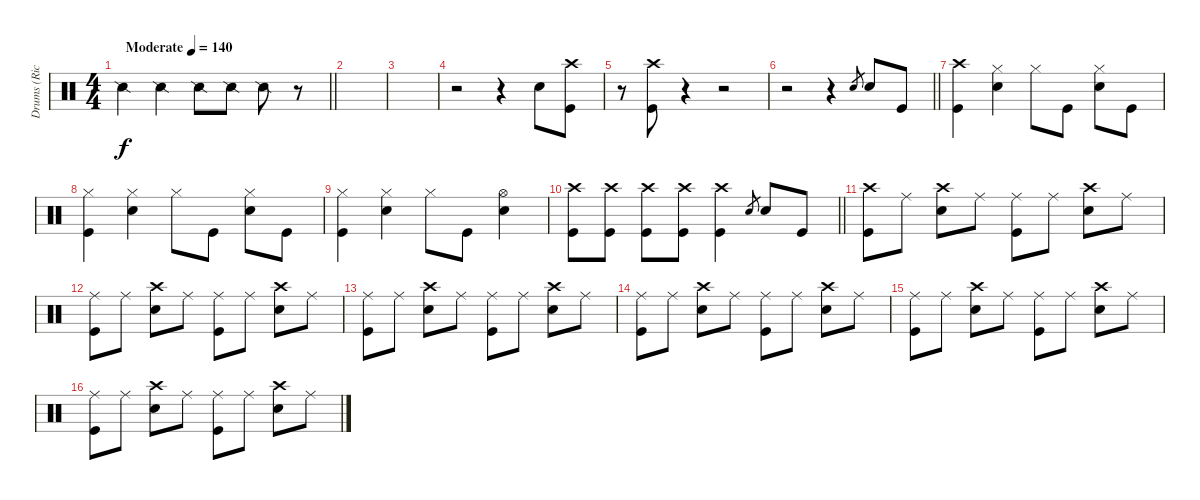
\track ("Drums (Rick)" "Drums (Ric") {instrument percussion}
\staff {score}
\articulation defaults
\ts (4 4)
\tempo (140 "Moderate")
\clef neutral
\barLineRight lightlight
\ks aminor "Snare (side stick) 2".4{dy f} "Snare (side stick) 2".4 "Snare (side stick) 2".8 "Snare (side stick) 2".8 "Snare (side stick) 2".8
r.8 |
|
|
r.2 r.4 "Snare (hit) 2".8 ("Crash high (hit)" "Kick (hit)").8 |
r.8 ("Crash high (hit)" "Kick (hit)").8 r.4 r.2 |
\barLineRight lightlight
r.2 r.4 "Snare (hit) 2".8{gr} "Snare (hit) 2".8 "Kick (hit)".8 |
("Crash high (hit)" "Kick (hit)").4 ("Hi-Hat (closed)" "Snare (hit) 2").4 "Hi-Hat (closed)".8 "Kick (hit)".8 ("Hi-Hat (closed)" "Snare (hit) 2").8 "Kick (hit)".8 |
("Hi-Hat (closed)" "Kick (hit)").4 ("Hi-Hat (closed)" "Snare (hit) 2").4 "Hi-Hat (closed)".8 "Kick (hit)".8 ("Hi-Hat (closed)" "Snare (hit) 2").8 "Kick (hit)".8 |
("Hi-Hat (closed)" "Kick (hit)").4 ("Hi-Hat (closed)" "Snare (hit) 2").4 "Hi-Hat (closed)".8 "Kick (hit)".8 ("Hi-Hat (open)" "Snare (hit) 2").4 |
\barLineRight lightlight
("Crash high (hit)" "Kick (hit)").8 ("Crash high (hit)" "Kick (hit)").8 ("Crash high (hit)" "Kick (hit)").8 ("Crash high (hit)" "Kick (hit)").8 ("Crash high (hit)" "Kick (hit)").4 "Snare (hit) 2".8{gr} "Snare (hit) 2".8 "Kick (hit)".8 |
("Crash high (hit)" "Kick (hit)").8 "Ride (middle)".8 ("Crash high (hit)" "Snare (hit) 2").8 "Ride (middle)".8 ("Ride (middle)" "Kick (hit)").8 "Ride (middle)".8 ("Crash high (hit)" "Snare (hit) 2").8 "Ride (middle)".8 |
("Ride (middle)" "Kick (hit)").8 "Ride (middle)".8 ("Crash high (hit)" "Snare (hit) 2").8 "Ride (middle)".8 ("Ride (middle)" "Kick (hit)").8 "Ride (middle)".8 ("Crash high (hit)" "Snare (hit) 2").8 "Ride (middle)".8 |
("Ride (middle)" "Kick (hit)").8 "Ride (middle)".8 ("Crash high (hit)" "Snare (hit) 2").8 "Ride (middle)".8 ("Ride (middle)" "Kick (hit)").8 "Ride (middle)".8 ("Crash high (hit)" "Snare (hit) 2").8 "Ride (middle)".8 |
("Ride (middle)" "Kick (hit)").8 "Ride (middle)".8 ("Crash high (hit)" "Snare (hit) 2").8 "Ride (middle)".8 ("Ride (middle)" "Kick (hit)").8 "Ride (middle)".8 ("Crash high (hit)" "Snare (hit) 2").8 "Ride (middle)".8 |
("Ride (middle)" "Kick (hit)").8 "Ride (middle)".8 ("Crash high (hit)" "Snare (hit) 2").8 "Ride (middle)".8 ("Ride (middle)" "Kick (hit)").8 "Ride (middle)".8 ("Crash high (hit)" "Snare (hit) 2").8 "Ride (middle)".8 |
("Ride (middle)" "Kick (hit)").8 "Ride (middle)".8 ("Crash high (hit)" "Snare (hit) 2").8 "Ride (middle)".8 ("Ride (middle)" "Kick (hit)").8 "Ride (middle)".8 ("Crash high (hit)" "Snare (hit) 2").8 "Ride (middle)".8
